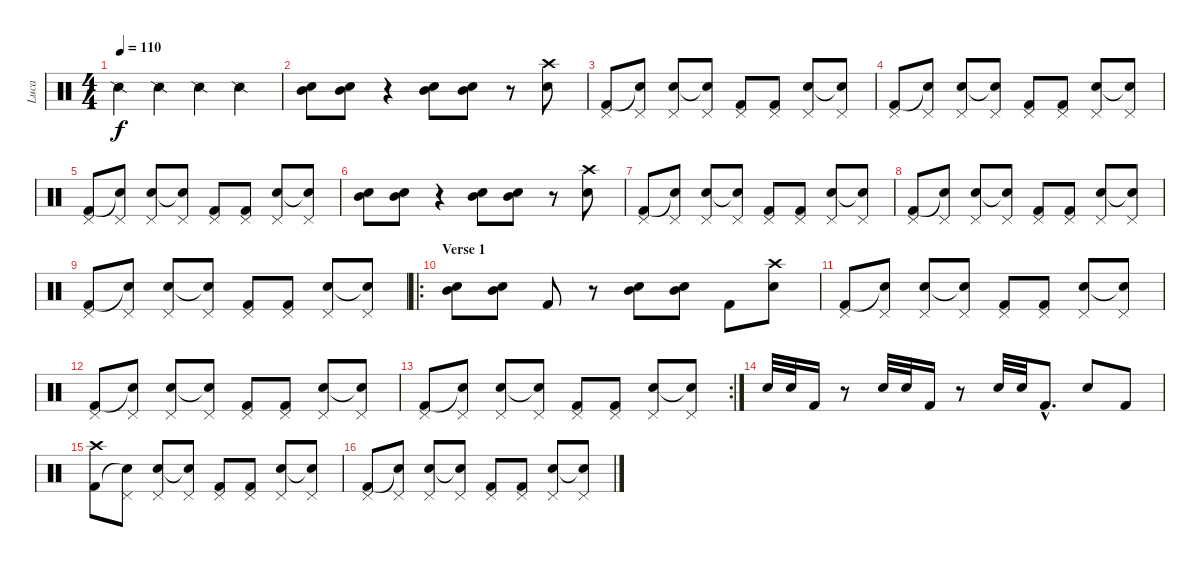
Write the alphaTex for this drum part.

\track ("Luca" "Luca") {instrument percussion}
\staff {score}
\articulation defaults
\ts (4 4)
\tempo 110
\clef neutral
\ks c "Snare (side stick) 2".4{dy f volume 6} "Snare (side stick) 2".4 "Snare (side stick) 2".4 "Snare (side stick) 2".4
|
("Snare (hit) 2" "Mid Tom (hit)").8{volume 13} ("Snare (hit) 2" "Mid Tom (hit)").8 r.4 ("Snare (hit) 2" "Mid Tom (hit)").8 ("Snare (hit) 2" "Mid Tom (hit)").8 r.8 ("Crash high (hit)" "Snare (hit) 2").8 |
("Pedal Hi-Hat (hit)" "Kick (hit) 2").8 ("Pedal Hi-Hat (hit)" "Snare (hit) 2"{t}).8 ("Pedal Hi-Hat (hit)" "Snare (hit) 2").8 ("Pedal Hi-Hat (hit)" "Snare (hit)"{t}).8 ("Pedal Hi-Hat (hit)" "Kick (hit) 2").8 ("Pedal Hi-Hat (hit)" "Kick (hit) 2").8 ("Pedal Hi-Hat (hit)" "Snare (hit) 2").8 ("Pedal Hi-Hat (hit)" "Snare (hit)"{t}).8 |
("Pedal Hi-Hat (hit)" "Kick (hit) 2").8 ("Pedal Hi-Hat (hit)" "Snare (hit) 2"{t}).8 ("Pedal Hi-Hat (hit)" "Snare (hit) 2").8 ("Pedal Hi-Hat (hit)" "Snare (hit)"{t}).8 ("Pedal Hi-Hat (hit)" "Kick (hit) 2").8 ("Pedal Hi-Hat (hit)" "Kick (hit) 2").8 ("Pedal Hi-Hat (hit)" "Snare (hit) 2").8 ("Pedal Hi-Hat (hit)" "Snare (hit)"{t}).8 |
("Pedal Hi-Hat (hit)" "Kick (hit) 2").8 ("Pedal Hi-Hat (hit)" "Snare (hit) 2"{t}).8 ("Pedal Hi-Hat (hit)" "Snare (hit) 2").8 ("Pedal Hi-Hat (hit)" "Snare (hit)"{t}).8 ("Pedal Hi-Hat (hit)" "Kick (hit) 2").8 ("Pedal Hi-Hat (hit)" "Kick (hit) 2").8 ("Pedal Hi-Hat (hit)" "Snare (hit) 2").8 ("Pedal Hi-Hat (hit)" "Snare (hit)"{t}).8 |
("Snare (hit) 2" "Mid Tom (hit)").8 ("Snare (hit) 2" "Mid Tom (hit)").8 r.4 ("Snare (hit) 2" "Mid Tom (hit)").8 ("Snare (hit) 2" "Mid Tom (hit)").8 r.8 ("Crash high (hit)" "Snare (hit) 2").8 |
("Pedal Hi-Hat (hit)" "Kick (hit) 2").8 ("Pedal Hi-Hat (hit)" "Snare (hit) 2"{t}).8 ("Pedal Hi-Hat (hit)" "Snare (hit) 2").8 ("Pedal Hi-Hat (hit)" "Snare (hit)"{t}).8 ("Pedal Hi-Hat (hit)" "Kick (hit) 2").8 ("Pedal Hi-Hat (hit)" "Kick (hit) 2").8 ("Pedal Hi-Hat (hit)" "Snare (hit) 2").8 ("Pedal Hi-Hat (hit)" "Snare (hit)"{t}).8 |
("Pedal Hi-Hat (hit)" "Kick (hit) 2").8 ("Pedal Hi-Hat (hit)" "Snare (hit) 2"{t}).8 ("Pedal Hi-Hat (hit)" "Snare (hit) 2").8 ("Pedal Hi-Hat (hit)" "Snare (hit)"{t}).8 ("Pedal Hi-Hat (hit)" "Kick (hit) 2").8 ("Pedal Hi-Hat (hit)" "Kick (hit) 2").8 ("Pedal Hi-Hat (hit)" "Snare (hit) 2").8 ("Pedal Hi-Hat (hit)" "Snare (hit)"{t}).8 |
("Pedal Hi-Hat (hit)" "Kick (hit) 2").8 ("Pedal Hi-Hat (hit)" "Snare (hit) 2"{t}).8 ("Pedal Hi-Hat (hit)" "Snare (hit) 2").8 ("Pedal Hi-Hat (hit)" "Snare (hit)"{t}).8 ("Pedal Hi-Hat (hit)" "Kick (hit) 2").8 ("Pedal Hi-Hat (hit)" "Kick (hit) 2").8 ("Pedal Hi-Hat (hit)" "Snare (hit) 2").8 ("Pedal Hi-Hat (hit)" "Snare (hit)"{t}).8 |
\ro
\section ("" "Verse 1")
("Snare (hit) 2" "Mid Tom (hit)").8 ("Snare (hit) 2" "Mid Tom (hit)").8 "Kick (hit) 2".8 r.8 ("Snare (hit) 2" "Mid Tom (hit)").8 ("Snare (hit) 2" "Mid Tom (hit)").8 "Kick (hit) 2".8 ("Crash high (hit)" "Snare (hit) 2").8 |
("Pedal Hi-Hat (hit)" "Kick (hit) 2").8 ("Pedal Hi-Hat (hit)" "Snare (hit) 2"{t}).8 ("Pedal Hi-Hat (hit)" "Snare (hit) 2").8 ("Pedal Hi-Hat (hit)" "Snare (hit)"{t}).8 ("Pedal Hi-Hat (hit)" "Kick (hit) 2").8 ("Pedal Hi-Hat (hit)" "Kick (hit) 2").8 ("Pedal Hi-Hat (hit)" "Snare (hit) 2").8 ("Pedal Hi-Hat (hit)" "Snare (hit)"{t}).8 |
("Pedal Hi-Hat (hit)" "Kick (hit) 2").8 ("Pedal Hi-Hat (hit)" "Snare (hit) 2"{t}).8 ("Pedal Hi-Hat (hit)" "Snare (hit) 2").8 ("Pedal Hi-Hat (hit)" "Snare (hit)"{t}).8 ("Pedal Hi-Hat (hit)" "Kick (hit) 2").8 ("Pedal Hi-Hat (hit)" "Kick (hit) 2").8 ("Pedal Hi-Hat (hit)" "Snare (hit) 2").8 ("Pedal Hi-Hat (hit)" "Snare (hit)"{t}).8 |
\rc 2
("Pedal Hi-Hat (hit)" "Kick (hit) 2").8 ("Pedal Hi-Hat (hit)" "Snare (hit) 2"{t}).8 ("Pedal Hi-Hat (hit)" "Snare (hit) 2").8 ("Pedal Hi-Hat (hit)" "Snare (hit)"{t}).8 ("Pedal Hi-Hat (hit)" "Kick (hit) 2").8 ("Pedal Hi-Hat (hit)" "Kick (hit) 2").8 ("Pedal Hi-Hat (hit)" "Snare (hit) 2").8 ("Pedal Hi-Hat (hit)" "Snare (hit)"{t}).8 |
"Snare (hit) 2".32 "Snare (hit) 2".32 "Kick (hit) 2".16 r.8 "Snare (hit) 2".32 "Snare (hit) 2".32 "Kick (hit) 2".16 r.8 "Snare (hit) 2".32 "Snare (hit) 2".32 "Kick (hit) 2"{hac}.8{d} "Snare (hit) 2".8 "Kick (hit) 2".8 |
("Crash high (hit)" "Kick (hit) 2").8 ("Pedal Hi-Hat (hit)" "Snare (hit) 2"{t}).8 ("Pedal Hi-Hat (hit)" "Snare (hit) 2").8 ("Pedal Hi-Hat (hit)" "Snare (hit)"{t}).8 ("Pedal Hi-Hat (hit)" "Kick (hit) 2").8 ("Pedal Hi-Hat (hit)" "Kick (hit) 2").8 ("Pedal Hi-Hat (hit)" "Snare (hit) 2").8 ("Pedal Hi-Hat (hit)" "Snare (hit)"{t}).8 |
("Pedal Hi-Hat (hit)" "Kick (hit) 2").8 ("Pedal Hi-Hat (hit)" "Snare (hit) 2"{t}).8 ("Pedal Hi-Hat (hit)" "Snare (hit) 2").8 ("Pedal Hi-Hat (hit)" "Snare (hit)"{t}).8 ("Pedal Hi-Hat (hit)" "Kick (hit) 2").8 ("Pedal Hi-Hat (hit)" "Kick (hit) 2").8 ("Pedal Hi-Hat (hit)" "Snare (hit) 2").8 ("Pedal Hi-Hat (hit)" "Snare (hit)"{t}).8
